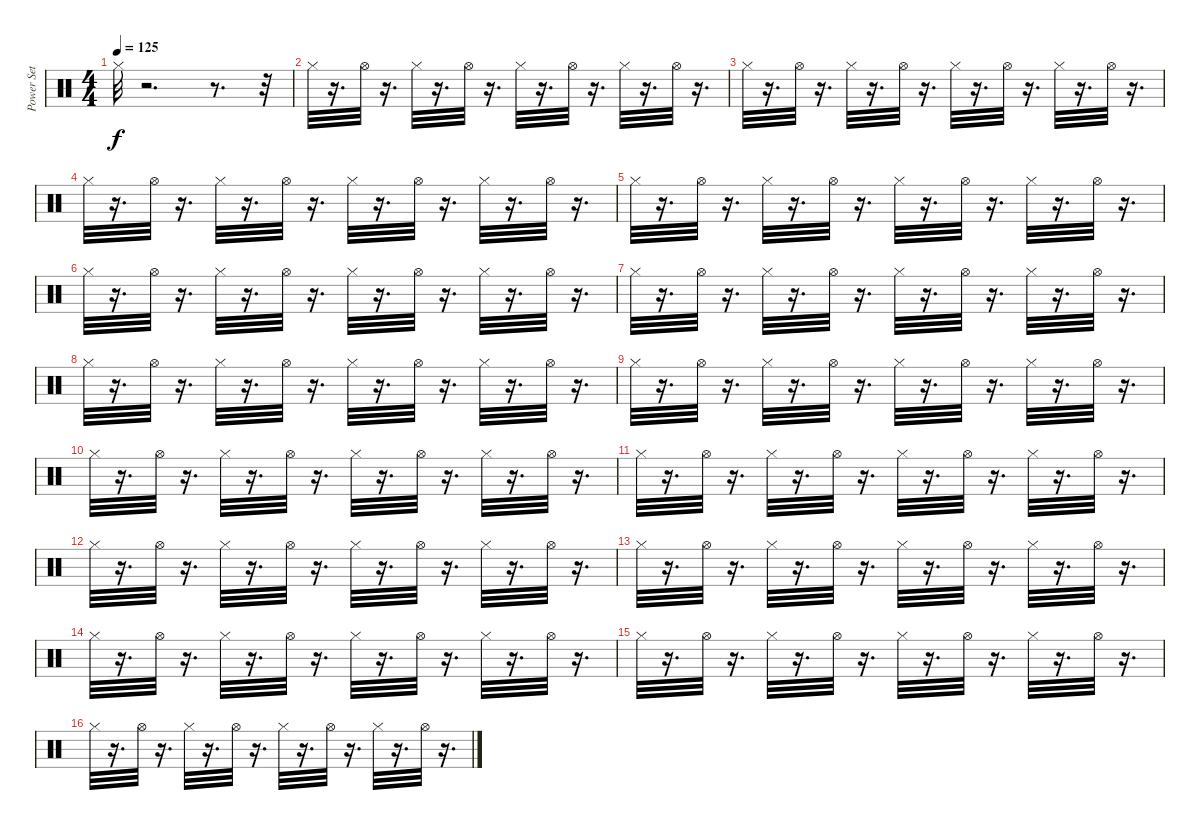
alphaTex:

\track ("Power Set" "Power Set") {instrument percussion}
\staff {score}
\articulation defaults
\ts (4 4)
\tempo 125
\clef neutral
\ks c "Hi-Hat (closed)".32{dy f}
r.2{d} r.8{d} r.32 |
"Hi-Hat (closed)".32 r.16{d} "Hi-Hat (open)".32 r.16{d} "Hi-Hat (closed)".32 r.16{d} "Hi-Hat (open)".32 r.16{d} "Hi-Hat (closed)".32 r.16{d} "Hi-Hat (open)".32 r.16{d} "Hi-Hat (closed)".32 r.16{d} "Hi-Hat (open)".32 r.16{d} |
"Hi-Hat (closed)".32 r.16{d} "Hi-Hat (open)".32 r.16{d} "Hi-Hat (closed)".32 r.16{d} "Hi-Hat (open)".32 r.16{d} "Hi-Hat (closed)".32 r.16{d} "Hi-Hat (open)".32 r.16{d} "Hi-Hat (closed)".32 r.16{d} "Hi-Hat (open)".32 r.16{d} |
"Hi-Hat (closed)".32 r.16{d} "Hi-Hat (open)".32 r.16{d} "Hi-Hat (closed)".32 r.16{d} "Hi-Hat (open)".32 r.16{d} "Hi-Hat (closed)".32 r.16{d} "Hi-Hat (open)".32 r.16{d} "Hi-Hat (closed)".32 r.16{d} "Hi-Hat (open)".32 r.16{d} |
"Hi-Hat (closed)".32 r.16{d} "Hi-Hat (open)".32 r.16{d} "Hi-Hat (closed)".32 r.16{d} "Hi-Hat (open)".32 r.16{d} "Hi-Hat (closed)".32 r.16{d} "Hi-Hat (open)".32 r.16{d} "Hi-Hat (closed)".32 r.16{d} "Hi-Hat (open)".32 r.16{d} |
"Hi-Hat (closed)".32 r.16{d} "Hi-Hat (open)".32 r.16{d} "Hi-Hat (closed)".32 r.16{d} "Hi-Hat (open)".32 r.16{d} "Hi-Hat (closed)".32 r.16{d} "Hi-Hat (open)".32 r.16{d} "Hi-Hat (closed)".32 r.16{d} "Hi-Hat (open)".32 r.16{d} |
"Hi-Hat (closed)".32 r.16{d} "Hi-Hat (open)".32 r.16{d} "Hi-Hat (closed)".32 r.16{d} "Hi-Hat (open)".32 r.16{d} "Hi-Hat (closed)".32 r.16{d} "Hi-Hat (open)".32 r.16{d} "Hi-Hat (closed)".32 r.16{d} "Hi-Hat (open)".32 r.16{d} |
"Hi-Hat (closed)".32 r.16{d} "Hi-Hat (open)".32 r.16{d} "Hi-Hat (closed)".32 r.16{d} "Hi-Hat (open)".32 r.16{d} "Hi-Hat (closed)".32 r.16{d} "Hi-Hat (open)".32 r.16{d} "Hi-Hat (closed)".32 r.16{d} "Hi-Hat (open)".32 r.16{d} |
"Hi-Hat (closed)".32 r.16{d} "Hi-Hat (open)".32 r.16{d} "Hi-Hat (closed)".32 r.16{d} "Hi-Hat (open)".32 r.16{d} "Hi-Hat (closed)".32 r.16{d} "Hi-Hat (open)".32 r.16{d} "Hi-Hat (closed)".32 r.16{d} "Hi-Hat (open)".32 r.16{d} |
"Hi-Hat (closed)".32 r.16{d} "Hi-Hat (open)".32 r.16{d} "Hi-Hat (closed)".32 r.16{d} "Hi-Hat (open)".32 r.16{d} "Hi-Hat (closed)".32 r.16{d} "Hi-Hat (open)".32 r.16{d} "Hi-Hat (closed)".32 r.16{d} "Hi-Hat (open)".32 r.16{d} |
"Hi-Hat (closed)".32 r.16{d} "Hi-Hat (open)".32 r.16{d} "Hi-Hat (closed)".32 r.16{d} "Hi-Hat (open)".32 r.16{d} "Hi-Hat (closed)".32 r.16{d} "Hi-Hat (open)".32 r.16{d} "Hi-Hat (closed)".32 r.16{d} "Hi-Hat (open)".32 r.16{d} |
"Hi-Hat (closed)".32 r.16{d} "Hi-Hat (open)".32 r.16{d} "Hi-Hat (closed)".32 r.16{d} "Hi-Hat (open)".32 r.16{d} "Hi-Hat (closed)".32 r.16{d} "Hi-Hat (open)".32 r.16{d} "Hi-Hat (closed)".32 r.16{d} "Hi-Hat (open)".32 r.16{d} |
"Hi-Hat (closed)".32 r.16{d} "Hi-Hat (open)".32 r.16{d} "Hi-Hat (closed)".32 r.16{d} "Hi-Hat (open)".32 r.16{d} "Hi-Hat (closed)".32 r.16{d} "Hi-Hat (open)".32 r.16{d} "Hi-Hat (closed)".32 r.16{d} "Hi-Hat (open)".32 r.16{d} |
"Hi-Hat (closed)".32 r.16{d} "Hi-Hat (open)".32 r.16{d} "Hi-Hat (closed)".32 r.16{d} "Hi-Hat (open)".32 r.16{d} "Hi-Hat (closed)".32 r.16{d} "Hi-Hat (open)".32 r.16{d} "Hi-Hat (closed)".32 r.16{d} "Hi-Hat (open)".32 r.16{d} |
"Hi-Hat (closed)".32 r.16{d} "Hi-Hat (open)".32 r.16{d} "Hi-Hat (closed)".32 r.16{d} "Hi-Hat (open)".32 r.16{d} "Hi-Hat (closed)".32 r.16{d} "Hi-Hat (open)".32 r.16{d} "Hi-Hat (closed)".32 r.16{d} "Hi-Hat (open)".32 r.16{d} |
"Hi-Hat (closed)".32 r.16{d} "Hi-Hat (open)".32 r.16{d} "Hi-Hat (closed)".32 r.16{d} "Hi-Hat (open)".32 r.16{d} "Hi-Hat (closed)".32 r.16{d} "Hi-Hat (open)".32 r.16{d} "Hi-Hat (closed)".32 r.16{d} "Hi-Hat (open)".32 r.16{d}
